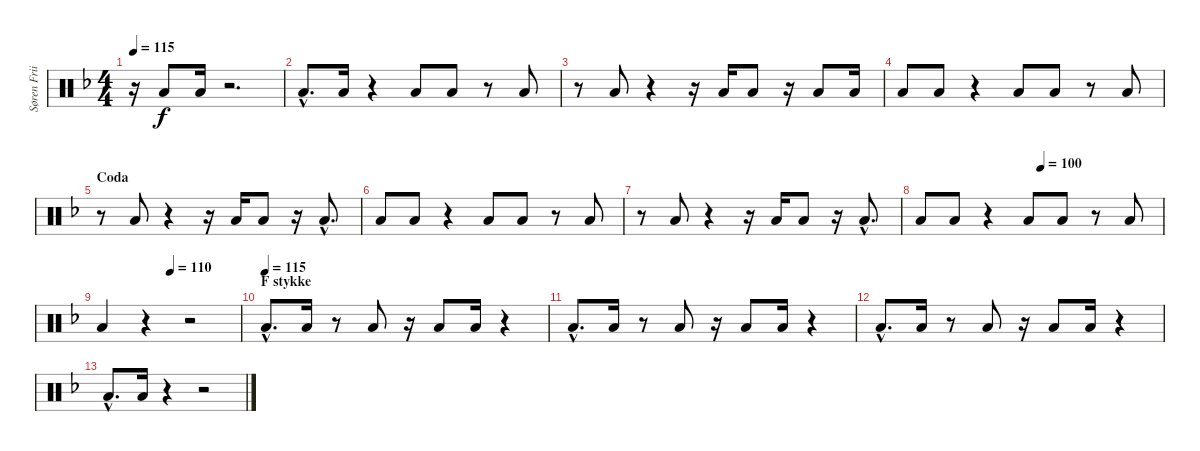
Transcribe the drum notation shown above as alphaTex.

\track ("Søren Friis (Floor Drum)" "Søren Frii") {instrument percussion}
\staff {score}
\articulation defaults
\ts (4 4)
\tempo 115
\clef neutral
\ks f
r.16{dy f} "Low Floor Tom (hit)".8 "Low Floor Tom (hit)".16 r.2{d} |
"Low Floor Tom (hit)"{hac}.8{d} "Low Floor Tom (hit)".16 r.4 "Low Floor Tom (hit)".8 "Low Floor Tom (hit)".8 r.8 "Low Floor Tom (hit)".8 |
r.8 "Low Floor Tom (hit)".8 r.4 r.16 "Low Floor Tom (hit)".16 "Low Floor Tom (hit)".8 r.16 "Low Floor Tom (hit)".8 "Low Floor Tom (hit)".16 |
"Low Floor Tom (hit)".8 "Low Floor Tom (hit)".8 r.4 "Low Floor Tom (hit)".8 "Low Floor Tom (hit)".8 r.8 "Low Floor Tom (hit)".8 |
\section ("" "Coda")
r.8 "Low Floor Tom (hit)".8 r.4 r.16 "Low Floor Tom (hit)".16 "Low Floor Tom (hit)".8 r.16 "Low Floor Tom (hit)"{hac}.8{d} |
"Low Floor Tom (hit)".8 "Low Floor Tom (hit)".8 r.4 "Low Floor Tom (hit)".8 "Low Floor Tom (hit)".8 r.8 "Low Floor Tom (hit)".8 |
r.8 "Low Floor Tom (hit)".8 r.4 r.16 "Low Floor Tom (hit)".16 "Low Floor Tom (hit)".8 r.16 "Low Floor Tom (hit)"{hac}.8{d} |
\tempo (100 0.5)
"Low Floor Tom (hit)".8 "Low Floor Tom (hit)".8 r.4 "Low Floor Tom (hit)".8 "Low Floor Tom (hit)".8 r.8 "Low Floor Tom (hit)".8 |
\tempo (110 0.5)
"Low Floor Tom (hit)".4 r.4 r.2 |
\section ("" "F stykke")
\tempo (115)
"Low Floor Tom (hit)"{hac}.8{d} "Low Floor Tom (hit)".16 r.8 "Low Floor Tom (hit)".8 r.16 "Low Floor Tom (hit)".8 "Low Floor Tom (hit)".16 r.4 |
"Low Floor Tom (hit)"{hac}.8{d} "Low Floor Tom (hit)".16 r.8 "Low Floor Tom (hit)".8 r.16 "Low Floor Tom (hit)".8 "Low Floor Tom (hit)".16 r.4 |
"Low Floor Tom (hit)"{hac}.8{d} "Low Floor Tom (hit)".16 r.8 "Low Floor Tom (hit)".8 r.16 "Low Floor Tom (hit)".8 "Low Floor Tom (hit)".16 r.4 |
"Low Floor Tom (hit)"{hac}.8{d} "Low Floor Tom (hit)".16 r.4 r.2
